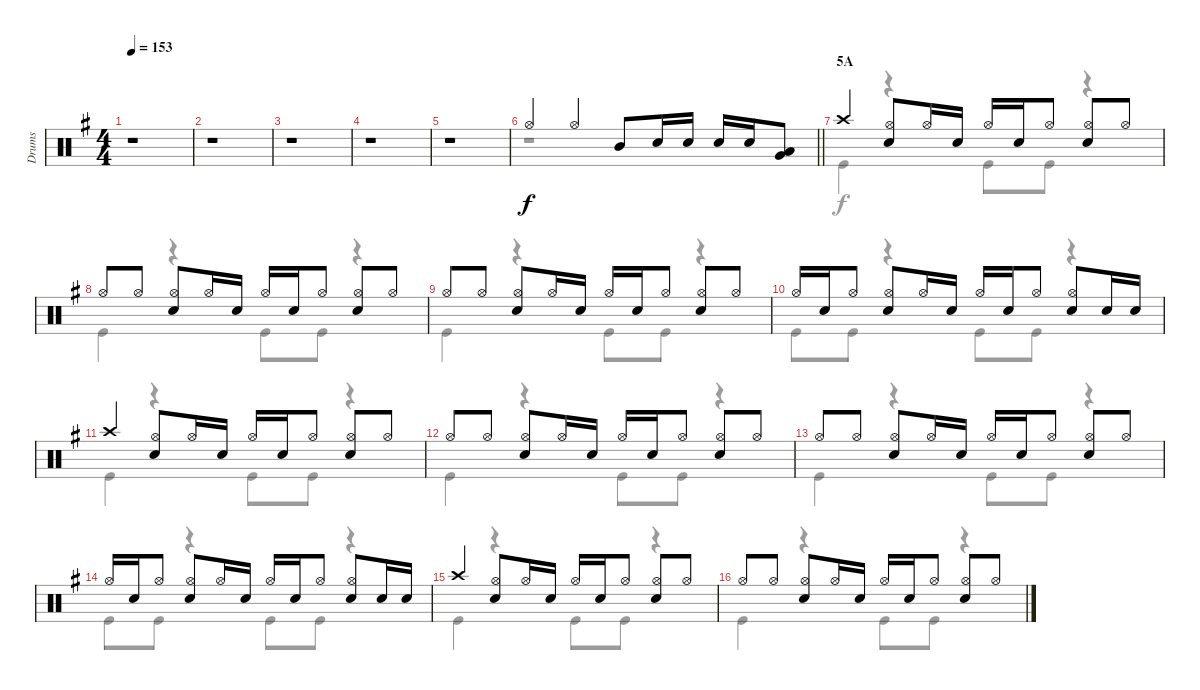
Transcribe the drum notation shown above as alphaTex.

\track ("Drums" "Drums") {instrument percussion}
\staff {score}
\articulation defaults
\voice
\ts (4 4)
\tempo 153
\clef neutral
\ks g
r.1{dy f} |
r.1 |
r.1 |
r.1 |
r.1 |
\barLineRight lightlight "Hi-Hat (open)".4 "Hi-Hat (open)".4 "Mid Tom (hit)".8 "Snare (hit) 2".16 "Snare (hit) 2".16 "Snare (hit) 2".16 "Snare (hit) 2".16
("Low Tom (hit)" "Very Low Tom (hit)").8 |
\section ("" "5A")
"Crash high (hit)".4 ("Hi-Hat (open)" "Snare (hit) 2").8 "Hi-Hat (open)".16 "Snare (hit) 2".16 "Hi-Hat (open)".16 "Snare (hit) 2".16 "Hi-Hat (open)".8 ("Hi-Hat (open)" "Snare (hit) 2").8 "Hi-Hat (open)".8 |
"Hi-Hat (open)".8 "Hi-Hat (open)".8 ("Hi-Hat (open)" "Snare (hit) 2").8 "Hi-Hat (open)".16 "Snare (hit) 2".16 "Hi-Hat (open)".16 "Snare (hit) 2".16 "Hi-Hat (open)".8 ("Hi-Hat (open)" "Snare (hit) 2").8 "Hi-Hat (open)".8 |
"Hi-Hat (open)".8 "Hi-Hat (open)".8 ("Hi-Hat (open)" "Snare (hit) 2").8 "Hi-Hat (open)".16 "Snare (hit) 2".16 "Hi-Hat (open)".16 "Snare (hit) 2".16 "Hi-Hat (open)".8 ("Hi-Hat (open)" "Snare (hit) 2").8 "Hi-Hat (open)".8 |
"Hi-Hat (open)".16 "Snare (hit) 2".16 "Hi-Hat (open)".8 ("Hi-Hat (open)" "Snare (hit) 2").8 "Hi-Hat (open)".16 "Snare (hit) 2".16 "Hi-Hat (open)".16 "Snare (hit) 2".16 "Hi-Hat (open)".8 ("Hi-Hat (open)" "Snare (hit) 2").8 "Snare (hit) 2".16 "Snare (hit) 2".16 |
"Crash high (hit)".4 ("Hi-Hat (open)" "Snare (hit) 2").8 "Hi-Hat (open)".16 "Snare (hit) 2".16 "Hi-Hat (open)".16 "Snare (hit) 2".16 "Hi-Hat (open)".8 ("Hi-Hat (open)" "Snare (hit) 2").8 "Hi-Hat (open)".8 |
"Hi-Hat (open)".8 "Hi-Hat (open)".8 ("Hi-Hat (open)" "Snare (hit) 2").8 "Hi-Hat (open)".16 "Snare (hit) 2".16 "Hi-Hat (open)".16 "Snare (hit) 2".16 "Hi-Hat (open)".8 ("Hi-Hat (open)" "Snare (hit) 2").8 "Hi-Hat (open)".8 |
"Hi-Hat (open)".8 "Hi-Hat (open)".8 ("Hi-Hat (open)" "Snare (hit) 2").8 "Hi-Hat (open)".16 "Snare (hit) 2".16 "Hi-Hat (open)".16 "Snare (hit) 2".16 "Hi-Hat (open)".8 ("Hi-Hat (open)" "Snare (hit) 2").8 "Hi-Hat (open)".8 |
"Hi-Hat (open)".16 "Snare (hit) 2".16 "Hi-Hat (open)".8 ("Hi-Hat (open)" "Snare (hit) 2").8 "Hi-Hat (open)".16 "Snare (hit) 2".16 "Hi-Hat (open)".16 "Snare (hit) 2".16 "Hi-Hat (open)".8 ("Hi-Hat (open)" "Snare (hit) 2").8 "Snare (hit) 2".16 "Snare (hit) 2".16 |
"Crash high (hit)".4 ("Hi-Hat (open)" "Snare (hit) 2").8 "Hi-Hat (open)".16 "Snare (hit) 2".16 "Hi-Hat (open)".16 "Snare (hit) 2".16 "Hi-Hat (open)".8 ("Hi-Hat (open)" "Snare (hit) 2").8 "Hi-Hat (open)".8 |
"Hi-Hat (open)".8 "Hi-Hat (open)".8 ("Hi-Hat (open)" "Snare (hit) 2").8 "Hi-Hat (open)".16 "Snare (hit) 2".16 "Hi-Hat (open)".16 "Snare (hit) 2".16 "Hi-Hat (open)".8 ("Hi-Hat (open)" "Snare (hit) 2").8 "Hi-Hat (open)".8
\voice
\clef neutral
\ottava regular
\simile none
\ks g
r.1{dy f} |
r.1 |
r.1 |
r.1 |
r.1 |
\barLineRight lightlight
r.1 |
"Kick (hit)".4 r.4 "Kick (hit)".8 "Kick (hit)".8 r.4 |
"Kick (hit)".4 r.4 "Kick (hit)".8 "Kick (hit)".8 r.4 |
"Kick (hit)".4 r.4 "Kick (hit)".8 "Kick (hit)".8 r.4 |
"Kick (hit)".8 "Kick (hit)".8 r.4 "Kick (hit)".8 "Kick (hit)".8 r.4 |
"Kick (hit)".4 r.4 "Kick (hit)".8 "Kick (hit)".8 r.4 |
"Kick (hit)".4 r.4 "Kick (hit)".8 "Kick (hit)".8 r.4 |
"Kick (hit)".4 r.4 "Kick (hit)".8 "Kick (hit)".8 r.4 |
"Kick (hit)".8 "Kick (hit)".8 r.4 "Kick (hit)".8 "Kick (hit)".8 r.4 |
"Kick (hit)".4 r.4 "Kick (hit)".8 "Kick (hit)".8 r.4 |
"Kick (hit)".4 r.4 "Kick (hit)".8 "Kick (hit)".8 r.4
